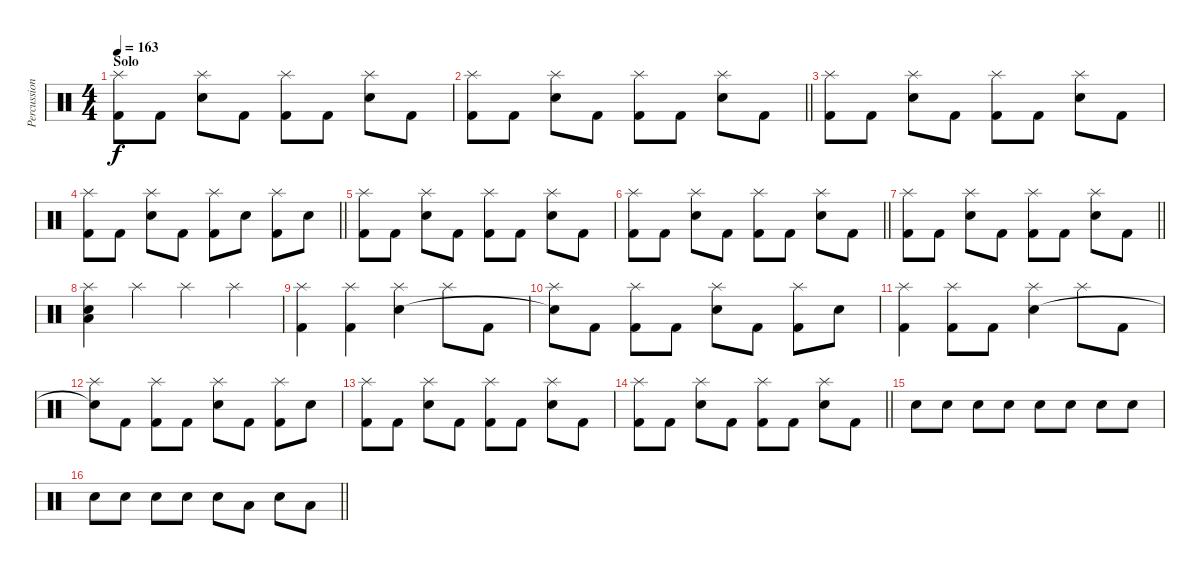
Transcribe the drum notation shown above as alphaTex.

\track ("Percussion" "Percussion") {solo instrument percussion}
\staff {score}
\articulation defaults
\ts (4 4)
\section ("" "Solo")
\tempo 163
\clef neutral
\ks c
("Splash (hit)" "Kick (hit) 2").8{dy f} "Kick (hit) 2".8 ("Splash (hit)" "Snare (hit) 2").8 "Kick (hit) 2".8 ("Splash (hit)" "Kick (hit) 2").8 "Kick (hit) 2".8 ("Splash (hit)" "Snare (hit) 2").8 "Kick (hit) 2".8 |
\barLineRight lightlight
("Splash (hit)" "Kick (hit) 2").8 "Kick (hit) 2".8 ("Splash (hit)" "Snare (hit) 2").8 "Kick (hit) 2".8 ("Splash (hit)" "Kick (hit) 2").8 "Kick (hit) 2".8 ("Splash (hit)" "Snare (hit) 2").8 "Kick (hit) 2".8 |
("Splash (hit)" "Kick (hit) 2").8 "Kick (hit) 2".8 ("Splash (hit)" "Snare (hit) 2").8 "Kick (hit) 2".8 ("Splash (hit)" "Kick (hit) 2").8 "Kick (hit) 2".8 ("Splash (hit)" "Snare (hit) 2").8 "Kick (hit) 2".8 |
\barLineRight lightlight
("Splash (hit)" "Kick (hit) 2").8 "Kick (hit) 2".8 ("Splash (hit)" "Snare (hit) 2").8 "Kick (hit) 2".8 ("Splash (hit)" "Kick (hit) 2").8 "Snare (hit) 2".8 ("Splash (hit)" "Kick (hit) 2").8 "Snare (hit) 2".8 |
("Splash (hit)" "Kick (hit) 2").8 "Kick (hit) 2".8 ("Splash (hit)" "Snare (hit) 2").8 "Kick (hit) 2".8 ("Splash (hit)" "Kick (hit) 2").8 "Kick (hit) 2".8 ("Splash (hit)" "Snare (hit) 2").8 "Kick (hit) 2".8 |
\barLineRight lightlight
("Splash (hit)" "Kick (hit) 2").8 "Kick (hit) 2".8 ("Splash (hit)" "Snare (hit) 2").8 "Kick (hit) 2".8 ("Splash (hit)" "Kick (hit) 2").8 "Kick (hit) 2".8 ("Splash (hit)" "Snare (hit) 2").8 "Kick (hit) 2".8 |
\barLineRight lightlight
("Splash (hit)" "Kick (hit) 2").8 "Kick (hit) 2".8 ("Splash (hit)" "Snare (hit) 2").8 "Kick (hit) 2".8 ("Splash (hit)" "Kick (hit) 2").8 "Kick (hit) 2".8 ("Splash (hit)" "Snare (hit) 2").8 "Kick (hit) 2".8 |
("Splash (hit)" "Low Tom (hit)" "Snare (hit) 2").4 "Splash (hit)".4 "Splash (hit)".4 "Splash (hit)".4 |
("Splash (hit)" "Kick (hit) 2").4 ("Splash (hit)" "Kick (hit) 2").4 ("Splash (hit)" "Snare (hit) 2").4 "Splash (hit)".8 "Kick (hit) 2".8 |
("Splash (hit)" "Snare (hit)"{t}).8 "Kick (hit) 2".8 ("Splash (hit)" "Kick (hit) 2").8 "Kick (hit) 2".8 ("Splash (hit)" "Snare (hit) 2").8 "Kick (hit) 2".8 ("Splash (hit)" "Kick (hit) 2").8 "Snare (hit) 2".8 |
("Splash (hit)" "Kick (hit) 2").4 ("Splash (hit)" "Kick (hit) 2").8 "Kick (hit) 2".8 ("Splash (hit)" "Snare (hit) 2").4 "Splash (hit)".8 "Kick (hit) 2".8 |
("Splash (hit)" "Snare (hit)"{t}).8 "Kick (hit) 2".8 ("Splash (hit)" "Kick (hit) 2").8 "Kick (hit) 2".8 ("Splash (hit)" "Snare (hit) 2").8 "Kick (hit) 2".8 ("Splash (hit)" "Kick (hit) 2").8 "Snare (hit) 2".8 |
("Splash (hit)" "Kick (hit) 2").8 "Kick (hit) 2".8 ("Splash (hit)" "Snare (hit) 2").8 "Kick (hit) 2".8 ("Splash (hit)" "Kick (hit) 2").8 "Kick (hit) 2".8 ("Splash (hit)" "Snare (hit) 2").8 "Kick (hit) 2".8 |
\barLineRight lightlight
("Splash (hit)" "Kick (hit) 2").8 "Kick (hit) 2".8 ("Splash (hit)" "Snare (hit) 2").8 "Kick (hit) 2".8 ("Splash (hit)" "Kick (hit) 2").8 "Kick (hit) 2".8 ("Splash (hit)" "Snare (hit) 2").8 "Kick (hit) 2".8 |
"Snare (hit) 2".8 "Snare (hit) 2".8 "Snare (hit) 2".8 "Snare (hit) 2".8 "Snare (hit) 2".8 "Snare (hit) 2".8 "Snare (hit) 2".8 "Snare (hit) 2".8 |
\barLineRight lightlight "Snare (hit) 2".8 "Snare (hit) 2".8 "Snare (hit) 2".8 "Snare (hit) 2".8 "Snare (hit) 2".8 "Low Tom (hit)".8 "Snare (hit) 2".8 "Low Floor Tom (hit)".8
